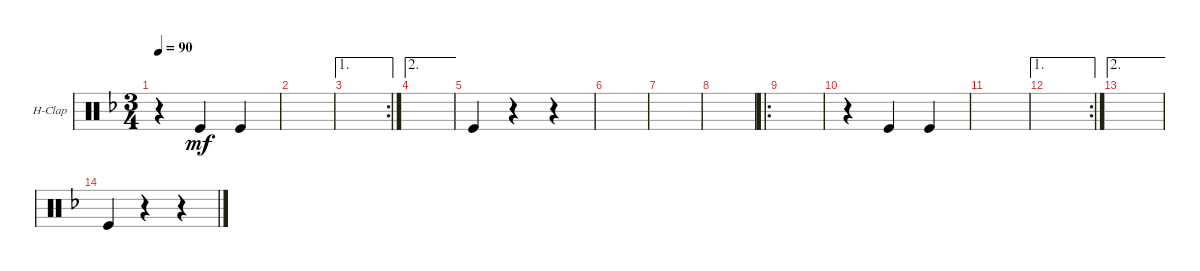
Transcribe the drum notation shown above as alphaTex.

\defaultSystemsLayout 4
\bracketExtendMode groupsimilarinstruments
\firstSystemTrackNameOrientation horizontal
\otherSystemsTrackNameOrientation horizontal
\track ("Hand Clap" "H-Clap") {instrument percussion}
\staff {score}
\articulation defaults
\ts (3 4)
\tempo 90
\clef neutral
\ks dminor
r.4{dy mf} "Kick (hit)".4 "Kick (hit)".4 |
|
\ae 1
\rc 2
|
\ae 2
|
"Kick (hit)".4 r.4 r.4 |
|
|
|
\ro
|
r.4 "Kick (hit)".4 "Kick (hit)".4 |
|
\ae 1
\rc 2
|
\ae 2
|
"Kick (hit)".4 r.4 r.4
